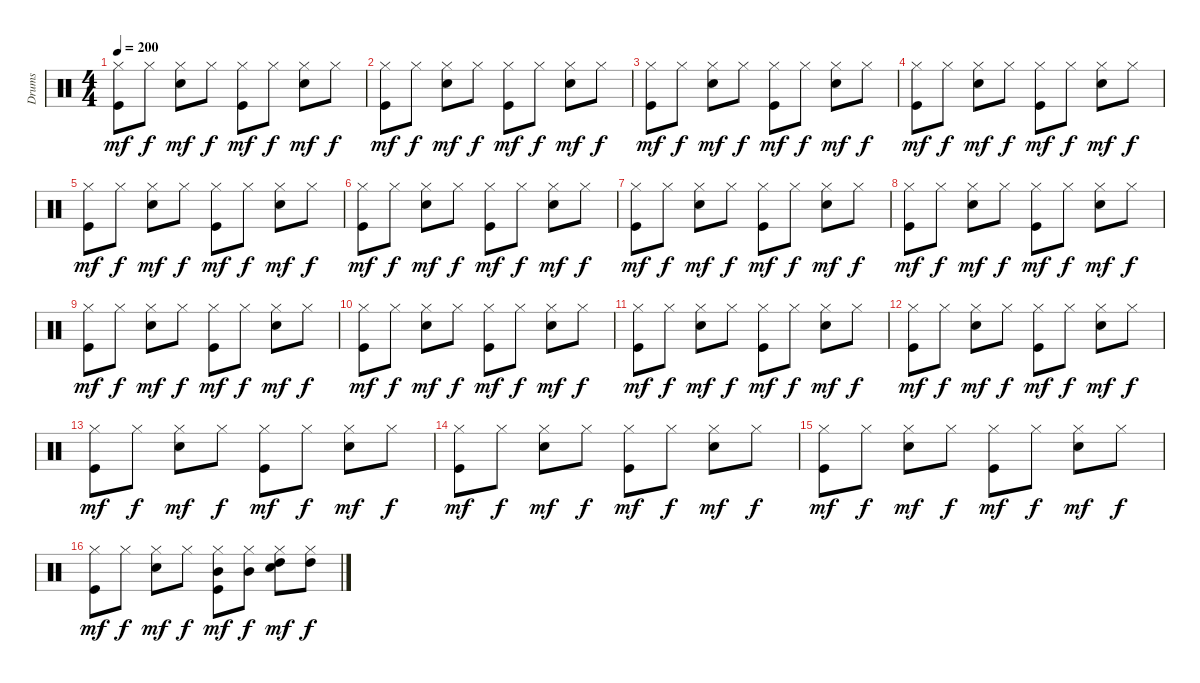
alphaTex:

\track ("Drums" "Drums") {instrument percussion}
\staff {score}
\articulation defaults
\ts (4 4)
\tempo 200
\clef neutral
\ks c
("Hi-Hat (closed)" "Kick (hit)").8{dy mf} "Hi-Hat (closed)".8{dy f} ("Hi-Hat (closed)" "Electric Snare (hit)").8{dy mf} "Hi-Hat (closed)".8{dy f} ("Hi-Hat (closed)" "Kick (hit)").8{dy mf} "Hi-Hat (closed)".8{dy f} ("Hi-Hat (closed)" "Electric Snare (hit)").8{dy mf} "Hi-Hat (closed)".8{dy f} |
("Hi-Hat (closed)" "Kick (hit)").8{dy mf} "Hi-Hat (closed)".8{dy f} ("Hi-Hat (closed)" "Electric Snare (hit)").8{dy mf} "Hi-Hat (closed)".8{dy f} ("Hi-Hat (closed)" "Kick (hit)").8{dy mf} "Hi-Hat (closed)".8{dy f} ("Hi-Hat (closed)" "Electric Snare (hit)").8{dy mf} "Hi-Hat (closed)".8{dy f} |
("Hi-Hat (closed)" "Kick (hit)").8{dy mf} "Hi-Hat (closed)".8{dy f} ("Hi-Hat (closed)" "Electric Snare (hit)").8{dy mf} "Hi-Hat (closed)".8{dy f} ("Hi-Hat (closed)" "Kick (hit)").8{dy mf} "Hi-Hat (closed)".8{dy f} ("Hi-Hat (closed)" "Electric Snare (hit)").8{dy mf} "Hi-Hat (closed)".8{dy f} |
("Hi-Hat (closed)" "Kick (hit)").8{dy mf} "Hi-Hat (closed)".8{dy f} ("Hi-Hat (closed)" "Electric Snare (hit)").8{dy mf} "Hi-Hat (closed)".8{dy f} ("Hi-Hat (closed)" "Kick (hit)").8{dy mf} "Hi-Hat (closed)".8{dy f} ("Hi-Hat (closed)" "Electric Snare (hit)").8{dy mf} "Hi-Hat (closed)".8{dy f} |
("Hi-Hat (closed)" "Kick (hit)").8{dy mf} "Hi-Hat (closed)".8{dy f} ("Hi-Hat (closed)" "Electric Snare (hit)").8{dy mf} "Hi-Hat (closed)".8{dy f} ("Hi-Hat (closed)" "Kick (hit)").8{dy mf} "Hi-Hat (closed)".8{dy f} ("Hi-Hat (closed)" "Electric Snare (hit)").8{dy mf} "Hi-Hat (closed)".8{dy f} |
("Hi-Hat (closed)" "Kick (hit)").8{dy mf} "Hi-Hat (closed)".8{dy f} ("Hi-Hat (closed)" "Electric Snare (hit)").8{dy mf} "Hi-Hat (closed)".8{dy f} ("Hi-Hat (closed)" "Kick (hit)").8{dy mf} "Hi-Hat (closed)".8{dy f} ("Hi-Hat (closed)" "Electric Snare (hit)").8{dy mf} "Hi-Hat (closed)".8{dy f} |
("Hi-Hat (closed)" "Kick (hit)").8{dy mf} "Hi-Hat (closed)".8{dy f} ("Hi-Hat (closed)" "Electric Snare (hit)").8{dy mf} "Hi-Hat (closed)".8{dy f} ("Hi-Hat (closed)" "Kick (hit)").8{dy mf} "Hi-Hat (closed)".8{dy f} ("Hi-Hat (closed)" "Electric Snare (hit)").8{dy mf} "Hi-Hat (closed)".8{dy f} |
("Hi-Hat (closed)" "Kick (hit)").8{dy mf} "Hi-Hat (closed)".8{dy f} ("Hi-Hat (closed)" "Electric Snare (hit)").8{dy mf} "Hi-Hat (closed)".8{dy f} ("Hi-Hat (closed)" "Kick (hit)").8{dy mf} "Hi-Hat (closed)".8{dy f} ("Hi-Hat (closed)" "Electric Snare (hit)").8{dy mf} "Hi-Hat (closed)".8{dy f} |
("Hi-Hat (closed)" "Kick (hit)").8{dy mf} "Hi-Hat (closed)".8{dy f} ("Hi-Hat (closed)" "Electric Snare (hit)").8{dy mf} "Hi-Hat (closed)".8{dy f} ("Hi-Hat (closed)" "Kick (hit)").8{dy mf} "Hi-Hat (closed)".8{dy f} ("Hi-Hat (closed)" "Electric Snare (hit)").8{dy mf} "Hi-Hat (closed)".8{dy f} |
("Hi-Hat (closed)" "Kick (hit)").8{dy mf} "Hi-Hat (closed)".8{dy f} ("Hi-Hat (closed)" "Electric Snare (hit)").8{dy mf} "Hi-Hat (closed)".8{dy f} ("Hi-Hat (closed)" "Kick (hit)").8{dy mf} "Hi-Hat (closed)".8{dy f} ("Hi-Hat (closed)" "Electric Snare (hit)").8{dy mf} "Hi-Hat (closed)".8{dy f} |
("Hi-Hat (closed)" "Kick (hit)").8{dy mf} "Hi-Hat (closed)".8{dy f} ("Hi-Hat (closed)" "Electric Snare (hit)").8{dy mf} "Hi-Hat (closed)".8{dy f} ("Hi-Hat (closed)" "Kick (hit)").8{dy mf} "Hi-Hat (closed)".8{dy f} ("Hi-Hat (closed)" "Electric Snare (hit)").8{dy mf} "Hi-Hat (closed)".8{dy f} |
("Hi-Hat (closed)" "Kick (hit)").8{dy mf} "Hi-Hat (closed)".8{dy f} ("Hi-Hat (closed)" "Electric Snare (hit)").8{dy mf} "Hi-Hat (closed)".8{dy f} ("Hi-Hat (closed)" "Kick (hit)").8{dy mf} "Hi-Hat (closed)".8{dy f} ("Hi-Hat (closed)" "Electric Snare (hit)").8{dy mf} "Hi-Hat (closed)".8{dy f} |
("Hi-Hat (closed)" "Kick (hit)").8{dy mf} "Hi-Hat (closed)".8{dy f} ("Hi-Hat (closed)" "Electric Snare (hit)").8{dy mf} "Hi-Hat (closed)".8{dy f} ("Hi-Hat (closed)" "Kick (hit)").8{dy mf} "Hi-Hat (closed)".8{dy f} ("Hi-Hat (closed)" "Electric Snare (hit)").8{dy mf} "Hi-Hat (closed)".8{dy f} |
("Hi-Hat (closed)" "Kick (hit)").8{dy mf} "Hi-Hat (closed)".8{dy f} ("Hi-Hat (closed)" "Electric Snare (hit)").8{dy mf} "Hi-Hat (closed)".8{dy f} ("Hi-Hat (closed)" "Kick (hit)").8{dy mf} "Hi-Hat (closed)".8{dy f} ("Hi-Hat (closed)" "Electric Snare (hit)").8{dy mf} "Hi-Hat (closed)".8{dy f} |
("Hi-Hat (closed)" "Kick (hit)").8{dy mf} "Hi-Hat (closed)".8{dy f} ("Hi-Hat (closed)" "Electric Snare (hit)").8{dy mf} "Hi-Hat (closed)".8{dy f} ("Hi-Hat (closed)" "Kick (hit)").8{dy mf} "Hi-Hat (closed)".8{dy f} ("Hi-Hat (closed)" "Electric Snare (hit)").8{dy mf} "Hi-Hat (closed)".8{dy f} |
("Hi-Hat (closed)" "Kick (hit)").8{dy mf} "Hi-Hat (closed)".8{dy f} ("Hi-Hat (closed)" "Electric Snare (hit)").8{dy mf} "Hi-Hat (closed)".8{dy f} ("Mid Tom (hit)" "Hi-Hat (closed)" "Kick (hit)").8{dy mf} ("Mid Tom (hit)" "Hi-Hat (closed)").8{dy f} ("High Tom (hit)" "Hi-Hat (closed)" "Electric Snare (hit)").8{dy mf} ("High Tom (hit)" "Hi-Hat (closed)").8{dy f}
